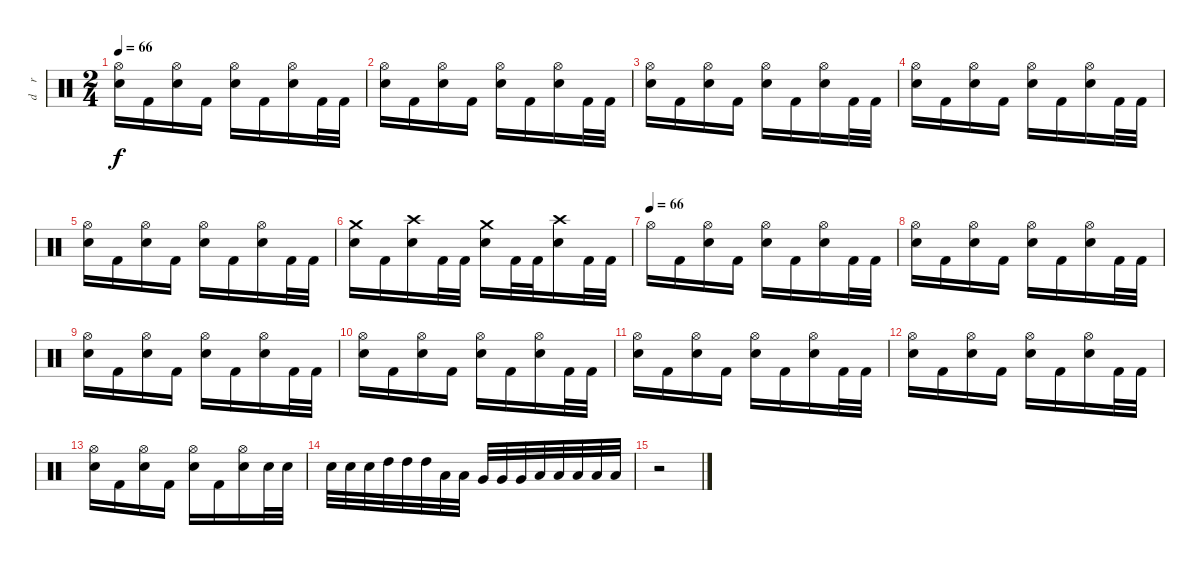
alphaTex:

\track ("d    r     u    m    s" "d    r    ") {instrument percussion}
\staff {score}
\articulation defaults
\ts (2 4)
\tempo 66
\clef neutral
\ks c
("Hi-Hat (open)" "Snare (hit) 2").16{dy f} "Kick (hit) 2".16 ("Hi-Hat (open)" "Snare (hit) 2").16 "Kick (hit) 2".16 ("Hi-Hat (open)" "Snare (hit) 2").16 "Kick (hit) 2".16 ("Hi-Hat (open)" "Snare (hit) 2").16 "Kick (hit) 2".32 "Kick (hit) 2".32 |
("Hi-Hat (open)" "Snare (hit) 2").16 "Kick (hit) 2".16 ("Hi-Hat (open)" "Snare (hit) 2").16 "Kick (hit) 2".16 ("Hi-Hat (open)" "Snare (hit) 2").16 "Kick (hit) 2".16 ("Hi-Hat (open)" "Snare (hit) 2").16 "Kick (hit) 2".32 "Kick (hit) 2".32 |
("Hi-Hat (open)" "Snare (hit) 2").16 "Kick (hit) 2".16 ("Hi-Hat (open)" "Snare (hit) 2").16 "Kick (hit) 2".16 ("Hi-Hat (open)" "Snare (hit) 2").16 "Kick (hit) 2".16 ("Hi-Hat (open)" "Snare (hit) 2").16 "Kick (hit) 2".32 "Kick (hit) 2".32 |
("Hi-Hat (open)" "Snare (hit) 2").16 "Kick (hit) 2".16 ("Hi-Hat (open)" "Snare (hit) 2").16 "Kick (hit) 2".16 ("Hi-Hat (open)" "Snare (hit) 2").16 "Kick (hit) 2".16 ("Hi-Hat (open)" "Snare (hit) 2").16 "Kick (hit) 2".32 "Kick (hit) 2".32 |
("Hi-Hat (open)" "Snare (hit) 2").16 "Kick (hit) 2".16 ("Hi-Hat (open)" "Snare (hit) 2").16 "Kick (hit) 2".16 ("Hi-Hat (open)" "Snare (hit) 2").16 "Kick (hit) 2".16 ("Hi-Hat (open)" "Snare (hit) 2").16 "Kick (hit) 2".32 "Kick (hit) 2".32 |
("Crash medium (hit)" "Snare (hit) 2").16 "Kick (hit) 2".16 ("Crash high (hit)" "Snare (hit) 2").16 "Kick (hit) 2".32 "Kick (hit) 2".32 ("Crash medium (hit)" "Snare (hit) 2").16 "Kick (hit) 2".32 "Kick (hit) 2".32 ("Crash high (hit)" "Snare (hit) 2").16 "Kick (hit) 2".32 "Kick (hit) 2".32 |
\tempo (66)
"Hi-Hat (open)".16 "Kick (hit) 2".16 ("Hi-Hat (open)" "Snare (hit) 2").16 "Kick (hit) 2".16 ("Hi-Hat (open)" "Snare (hit) 2").16 "Kick (hit) 2".16 ("Hi-Hat (open)" "Snare (hit) 2").16 "Kick (hit) 2".32 "Kick (hit) 2".32 |
("Hi-Hat (open)" "Snare (hit) 2").16 "Kick (hit) 2".16 ("Hi-Hat (open)" "Snare (hit) 2").16 "Kick (hit) 2".16 ("Hi-Hat (open)" "Snare (hit) 2").16 "Kick (hit) 2".16 ("Hi-Hat (open)" "Snare (hit) 2").16 "Kick (hit) 2".32 "Kick (hit) 2".32 |
("Hi-Hat (open)" "Snare (hit) 2").16 "Kick (hit) 2".16 ("Hi-Hat (open)" "Snare (hit) 2").16 "Kick (hit) 2".16 ("Hi-Hat (open)" "Snare (hit) 2").16 "Kick (hit) 2".16 ("Hi-Hat (open)" "Snare (hit) 2").16 "Kick (hit) 2".32 "Kick (hit) 2".32 |
("Hi-Hat (open)" "Snare (hit) 2").16 "Kick (hit) 2".16 ("Hi-Hat (open)" "Snare (hit) 2").16 "Kick (hit) 2".16 ("Hi-Hat (open)" "Snare (hit) 2").16 "Kick (hit) 2".16 ("Hi-Hat (open)" "Snare (hit) 2").16 "Kick (hit) 2".32 "Kick (hit) 2".32 |
("Hi-Hat (open)" "Snare (hit) 2").16 "Kick (hit) 2".16 ("Hi-Hat (open)" "Snare (hit) 2").16 "Kick (hit) 2".16 ("Hi-Hat (open)" "Snare (hit) 2").16 "Kick (hit) 2".16 ("Hi-Hat (open)" "Snare (hit) 2").16 "Kick (hit) 2".32 "Kick (hit) 2".32 |
("Hi-Hat (open)" "Snare (hit) 2").16 "Kick (hit) 2".16 ("Hi-Hat (open)" "Snare (hit) 2").16 "Kick (hit) 2".16 ("Hi-Hat (open)" "Snare (hit) 2").16 "Kick (hit) 2".16 ("Hi-Hat (open)" "Snare (hit) 2").16 "Kick (hit) 2".32 "Kick (hit) 2".32 |
("Hi-Hat (open)" "Snare (hit) 2").16 "Kick (hit) 2".16 ("Hi-Hat (open)" "Snare (hit) 2").16 "Kick (hit) 2".16 ("Hi-Hat (open)" "Snare (hit) 2").16 "Kick (hit) 2".16 ("Hi-Hat (open)" "Snare (hit) 2").16 "Snare (hit) 2".32 "Snare (hit) 2".32 |
"Snare (hit) 2".32 "Snare (hit) 2".32 "Snare (hit) 2".32 "High Tom (hit)".32 "High Tom (hit)".32 "High Tom (hit)".32 "Low Tom (hit)".32 "Low Tom (hit)".32 "Very Low Tom (hit)".32 "Very Low Tom (hit)".32 "Very Low Tom (hit)".32 "Low Floor Tom (hit)".32 "Low Floor Tom (hit)".32 "Low Floor Tom (hit)".32 "Low Floor Tom (hit)".32 "Low Floor Tom (hit)".32 |
r.2
